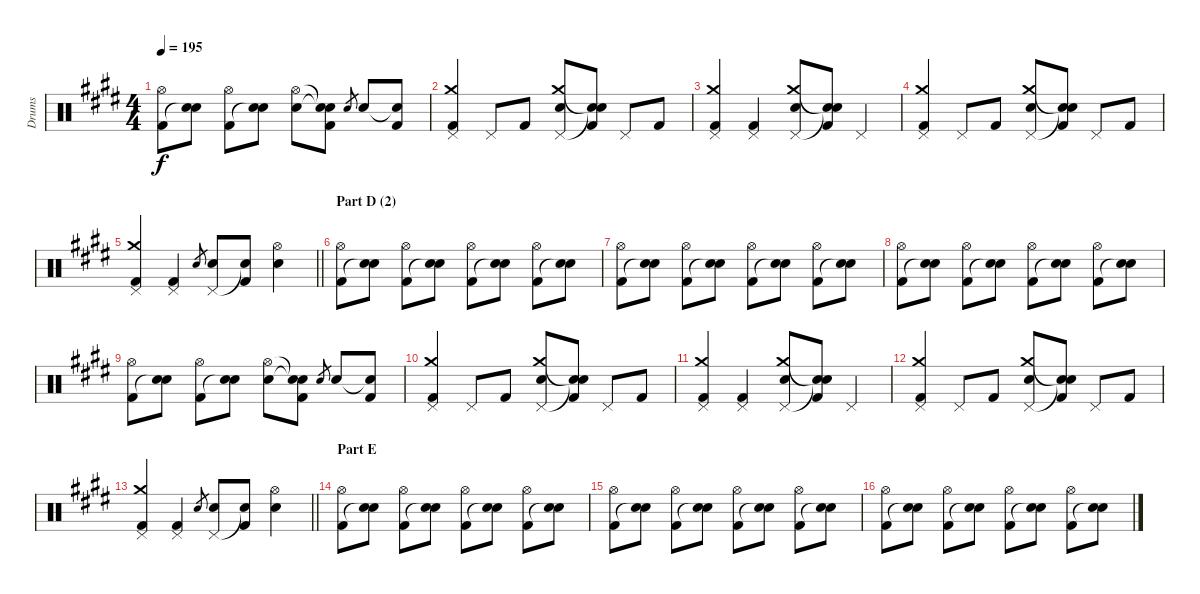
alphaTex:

\track ("Drums" "Drums") {instrument percussion}
\staff {score}
\articulation defaults
\ts (4 4)
\tempo 195
\clef neutral
\ks e
("Hi-Hat (open)" "Kick (hit) 2").8{dy f} ("Electric Snare (hit)" "Snare (hit)"{t}).8 ("Hi-Hat (open)" "Kick (hit) 2").8 ("Electric Snare (hit)" "Snare (hit)"{t}).8 ("Hi-Hat (open)" "Electric Snare (hit)").8 ("Snare (hit)"{t} "Snare (hit)"{t} "Kick (hit) 2").8 "Electric Snare (hit)".8{gr} "Electric Snare (hit)".8 ("Snare (hit)"{t} "Kick (hit) 2").8 |
("Crash medium (hit)" "Pedal Hi-Hat (hit)" "Kick (hit) 2").4 "Pedal Hi-Hat (hit)".8 "Kick (hit) 2".8 ("Crash medium (hit)" "Pedal Hi-Hat (hit)" "Electric Snare (hit)").8 ("Snare (hit)"{t} "Snare (hit)"{t} "Kick (hit) 2").8 "Pedal Hi-Hat (hit)".8 "Kick (hit) 2".8 |
("Crash medium (hit)" "Pedal Hi-Hat (hit)" "Kick (hit) 2").4 ("Pedal Hi-Hat (hit)" "Kick (hit) 2").4 ("Crash medium (hit)" "Pedal Hi-Hat (hit)" "Electric Snare (hit)").8 ("Snare (hit)"{t} "Snare (hit)"{t} "Kick (hit) 2").8 "Pedal Hi-Hat (hit)".4 |
("Crash medium (hit)" "Pedal Hi-Hat (hit)" "Kick (hit) 2").4 "Pedal Hi-Hat (hit)".8 "Kick (hit) 2".8 ("Crash medium (hit)" "Pedal Hi-Hat (hit)" "Electric Snare (hit)").8 ("Snare (hit)"{t} "Snare (hit)"{t} "Kick (hit) 2").8 "Pedal Hi-Hat (hit)".8 "Kick (hit) 2".8 |
\barLineRight lightlight
("Crash medium (hit)" "Pedal Hi-Hat (hit)" "Kick (hit) 2").4 ("Pedal Hi-Hat (hit)" "Kick (hit) 2").4 "Electric Snare (hit)".8{gr} ("Pedal Hi-Hat (hit)" "Electric Snare (hit)").8 ("Snare (hit)"{t} "Kick (hit) 2").8 ("Hi-Hat (open)" "Electric Snare (hit)").4 |
\section ("" "Part D (2)")
("Hi-Hat (open)" "Kick (hit) 2").8 ("Electric Snare (hit)" "Snare (hit)"{t}).8 ("Hi-Hat (open)" "Kick (hit) 2").8 ("Electric Snare (hit)" "Snare (hit)"{t}).8 ("Hi-Hat (open)" "Kick (hit) 2").8 ("Electric Snare (hit)" "Snare (hit)"{t}).8 ("Hi-Hat (open)" "Kick (hit) 2").8 ("Electric Snare (hit)" "Snare (hit)"{t}).8 |
("Hi-Hat (open)" "Kick (hit) 2").8 ("Electric Snare (hit)" "Snare (hit)"{t}).8 ("Hi-Hat (open)" "Kick (hit) 2").8 ("Electric Snare (hit)" "Snare (hit)"{t}).8 ("Hi-Hat (open)" "Kick (hit) 2").8 ("Electric Snare (hit)" "Snare (hit)"{t}).8 ("Hi-Hat (open)" "Kick (hit) 2").8 ("Electric Snare (hit)" "Snare (hit)"{t}).8 |
("Hi-Hat (open)" "Kick (hit) 2").8 ("Electric Snare (hit)" "Snare (hit)"{t}).8 ("Hi-Hat (open)" "Kick (hit) 2").8 ("Electric Snare (hit)" "Snare (hit)"{t}).8 ("Hi-Hat (open)" "Kick (hit) 2").8 ("Electric Snare (hit)" "Snare (hit)"{t}).8 ("Hi-Hat (open)" "Kick (hit) 2").8 ("Electric Snare (hit)" "Snare (hit)"{t}).8 |
("Hi-Hat (open)" "Kick (hit) 2").8 ("Electric Snare (hit)" "Snare (hit)"{t}).8 ("Hi-Hat (open)" "Kick (hit) 2").8 ("Electric Snare (hit)" "Snare (hit)"{t}).8 ("Hi-Hat (open)" "Electric Snare (hit)").8 ("Snare (hit)"{t} "Snare (hit)"{t} "Kick (hit) 2").8 "Electric Snare (hit)".8{gr} "Electric Snare (hit)".8 ("Snare (hit)"{t} "Kick (hit) 2").8 |
("Crash medium (hit)" "Pedal Hi-Hat (hit)" "Kick (hit) 2").4 "Pedal Hi-Hat (hit)".8 "Kick (hit) 2".8 ("Crash medium (hit)" "Pedal Hi-Hat (hit)" "Electric Snare (hit)").8 ("Snare (hit)"{t} "Snare (hit)"{t} "Kick (hit) 2").8 "Pedal Hi-Hat (hit)".8 "Kick (hit) 2".8 |
("Crash medium (hit)" "Pedal Hi-Hat (hit)" "Kick (hit) 2").4 ("Pedal Hi-Hat (hit)" "Kick (hit) 2").4 ("Crash medium (hit)" "Pedal Hi-Hat (hit)" "Electric Snare (hit)").8 ("Snare (hit)"{t} "Snare (hit)"{t} "Kick (hit) 2").8 "Pedal Hi-Hat (hit)".4 |
("Crash medium (hit)" "Pedal Hi-Hat (hit)" "Kick (hit) 2").4 "Pedal Hi-Hat (hit)".8 "Kick (hit) 2".8 ("Crash medium (hit)" "Pedal Hi-Hat (hit)" "Electric Snare (hit)").8 ("Snare (hit)"{t} "Snare (hit)"{t} "Kick (hit) 2").8 "Pedal Hi-Hat (hit)".8 "Kick (hit) 2".8 |
\barLineRight lightlight
("Crash medium (hit)" "Pedal Hi-Hat (hit)" "Kick (hit) 2").4 ("Pedal Hi-Hat (hit)" "Kick (hit) 2").4 "Electric Snare (hit)".8{gr} ("Pedal Hi-Hat (hit)" "Electric Snare (hit)").8 ("Snare (hit)"{t} "Kick (hit) 2").8 ("Hi-Hat (open)" "Electric Snare (hit)").4 |
\section ("" "Part E")
("Hi-Hat (open)" "Kick (hit) 2").8 ("Electric Snare (hit)" "Snare (hit)"{t}).8 ("Hi-Hat (open)" "Kick (hit) 2").8 ("Electric Snare (hit)" "Snare (hit)"{t}).8 ("Hi-Hat (open)" "Kick (hit) 2").8 ("Electric Snare (hit)" "Snare (hit)"{t}).8 ("Hi-Hat (open)" "Kick (hit) 2").8 ("Electric Snare (hit)" "Snare (hit)"{t}).8 |
("Hi-Hat (open)" "Kick (hit) 2").8 ("Electric Snare (hit)" "Snare (hit)"{t}).8 ("Hi-Hat (open)" "Kick (hit) 2").8 ("Electric Snare (hit)" "Snare (hit)"{t}).8 ("Hi-Hat (open)" "Kick (hit) 2").8 ("Electric Snare (hit)" "Snare (hit)"{t}).8 ("Hi-Hat (open)" "Kick (hit) 2").8 ("Electric Snare (hit)" "Snare (hit)"{t}).8 |
("Hi-Hat (open)" "Kick (hit) 2").8 ("Electric Snare (hit)" "Snare (hit)"{t}).8 ("Hi-Hat (open)" "Kick (hit) 2").8 ("Electric Snare (hit)" "Snare (hit)"{t}).8 ("Hi-Hat (open)" "Kick (hit) 2").8 ("Electric Snare (hit)" "Snare (hit)"{t}).8 ("Hi-Hat (open)" "Kick (hit) 2").8 ("Electric Snare (hit)" "Snare (hit)"{t}).8
